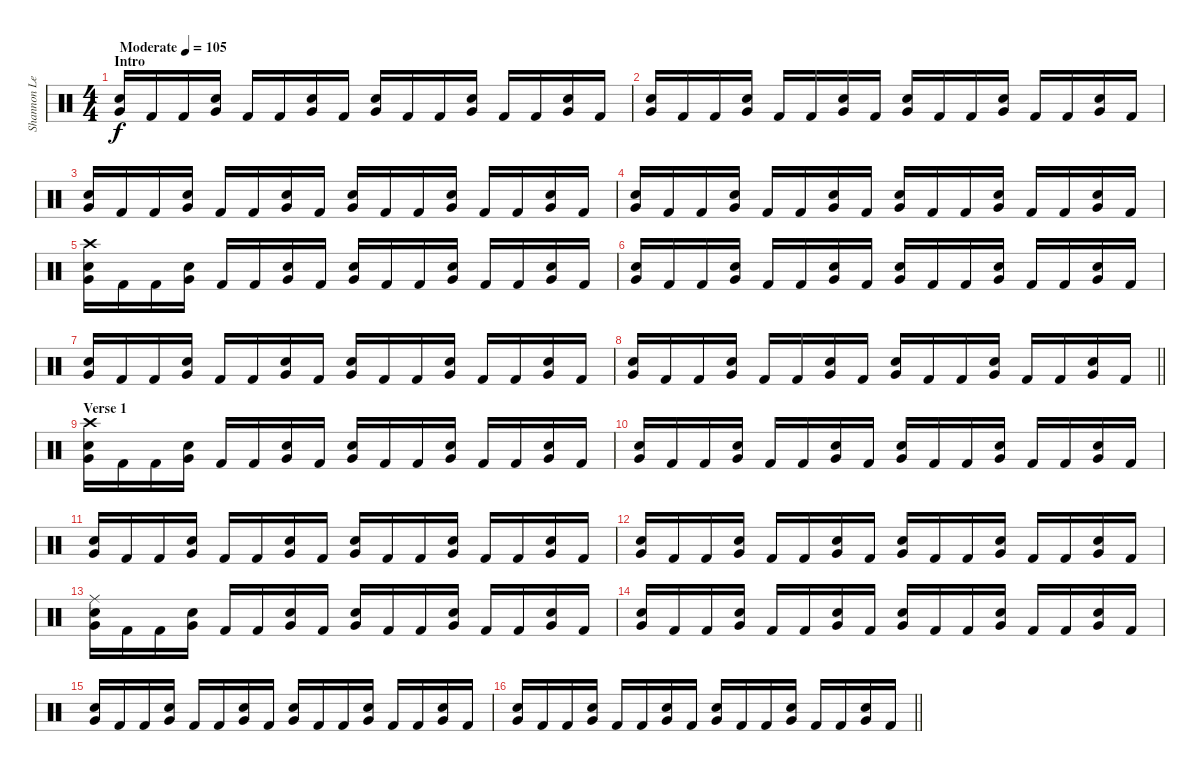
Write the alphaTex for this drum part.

\track ("Shannon Leto - Drums" "Shannon Le") {instrument percussion}
\staff {score}
\articulation defaults
\ts (4 4)
\section ("" "Intro")
\tempo (105 "Moderate")
\clef neutral
\ks c
("Electric Snare (hit)" "Very Low Tom (hit)").16{dy f} "Kick (hit) 2".16 "Kick (hit) 2".16 ("Electric Snare (hit)" "Very Low Tom (hit)").16 "Kick (hit) 2".16 "Kick (hit) 2".16 ("Electric Snare (hit)" "Very Low Tom (hit)").16 "Kick (hit) 2".16 ("Electric Snare (hit)" "Very Low Tom (hit)").16 "Kick (hit) 2".16 "Kick (hit) 2".16 ("Electric Snare (hit)" "Very Low Tom (hit)").16 "Kick (hit) 2".16 "Kick (hit) 2".16 ("Electric Snare (hit)" "Very Low Tom (hit)").16 "Kick (hit) 2".16 |
("Electric Snare (hit)" "Very Low Tom (hit)").16 "Kick (hit) 2".16 "Kick (hit) 2".16 ("Electric Snare (hit)" "Very Low Tom (hit)").16 "Kick (hit) 2".16 "Kick (hit) 2".16 ("Electric Snare (hit)" "Very Low Tom (hit)").16 "Kick (hit) 2".16 ("Electric Snare (hit)" "Very Low Tom (hit)").16 "Kick (hit) 2".16 "Kick (hit) 2".16 ("Electric Snare (hit)" "Very Low Tom (hit)").16 "Kick (hit) 2".16 "Kick (hit) 2".16 ("Electric Snare (hit)" "Very Low Tom (hit)").16 "Kick (hit) 2".16 |
("Electric Snare (hit)" "Very Low Tom (hit)").16 "Kick (hit) 2".16 "Kick (hit) 2".16 ("Electric Snare (hit)" "Very Low Tom (hit)").16 "Kick (hit) 2".16 "Kick (hit) 2".16 ("Electric Snare (hit)" "Very Low Tom (hit)").16 "Kick (hit) 2".16 ("Electric Snare (hit)" "Very Low Tom (hit)").16 "Kick (hit) 2".16 "Kick (hit) 2".16 ("Electric Snare (hit)" "Very Low Tom (hit)").16 "Kick (hit) 2".16 "Kick (hit) 2".16 ("Electric Snare (hit)" "Very Low Tom (hit)").16 "Kick (hit) 2".16 |
("Electric Snare (hit)" "Very Low Tom (hit)").16 "Kick (hit) 2".16 "Kick (hit) 2".16 ("Electric Snare (hit)" "Very Low Tom (hit)").16 "Kick (hit) 2".16 "Kick (hit) 2".16 ("Electric Snare (hit)" "Very Low Tom (hit)").16 "Kick (hit) 2".16 ("Electric Snare (hit)" "Very Low Tom (hit)").16 "Kick (hit) 2".16 "Kick (hit) 2".16 ("Electric Snare (hit)" "Very Low Tom (hit)").16 "Kick (hit) 2".16 "Kick (hit) 2".16 ("Electric Snare (hit)" "Very Low Tom (hit)").16 "Kick (hit) 2".16 |
("Crash high (hit)" "Electric Snare (hit)" "Very Low Tom (hit)").16 "Kick (hit) 2".16 "Kick (hit) 2".16 ("Electric Snare (hit)" "Very Low Tom (hit)").16 "Kick (hit) 2".16 "Kick (hit) 2".16 ("Electric Snare (hit)" "Very Low Tom (hit)").16 "Kick (hit) 2".16 ("Electric Snare (hit)" "Very Low Tom (hit)").16 "Kick (hit) 2".16 "Kick (hit) 2".16 ("Electric Snare (hit)" "Very Low Tom (hit)").16 "Kick (hit) 2".16 "Kick (hit) 2".16 ("Electric Snare (hit)" "Very Low Tom (hit)").16 "Kick (hit) 2".16 |
("Electric Snare (hit)" "Very Low Tom (hit)").16 "Kick (hit) 2".16 "Kick (hit) 2".16 ("Electric Snare (hit)" "Very Low Tom (hit)").16 "Kick (hit) 2".16 "Kick (hit) 2".16 ("Electric Snare (hit)" "Very Low Tom (hit)").16 "Kick (hit) 2".16 ("Electric Snare (hit)" "Very Low Tom (hit)").16 "Kick (hit) 2".16 "Kick (hit) 2".16 ("Electric Snare (hit)" "Very Low Tom (hit)").16 "Kick (hit) 2".16 "Kick (hit) 2".16 ("Electric Snare (hit)" "Very Low Tom (hit)").16 "Kick (hit) 2".16 |
("Electric Snare (hit)" "Very Low Tom (hit)").16 "Kick (hit) 2".16 "Kick (hit) 2".16 ("Electric Snare (hit)" "Very Low Tom (hit)").16 "Kick (hit) 2".16 "Kick (hit) 2".16 ("Electric Snare (hit)" "Very Low Tom (hit)").16 "Kick (hit) 2".16 ("Electric Snare (hit)" "Very Low Tom (hit)").16 "Kick (hit) 2".16 "Kick (hit) 2".16 ("Electric Snare (hit)" "Very Low Tom (hit)").16 "Kick (hit) 2".16 "Kick (hit) 2".16 ("Electric Snare (hit)" "Very Low Tom (hit)").16 "Kick (hit) 2".16 |
\barLineRight lightlight
("Electric Snare (hit)" "Very Low Tom (hit)").16 "Kick (hit) 2".16 "Kick (hit) 2".16 ("Electric Snare (hit)" "Very Low Tom (hit)").16 "Kick (hit) 2".16 "Kick (hit) 2".16 ("Electric Snare (hit)" "Very Low Tom (hit)").16 "Kick (hit) 2".16 ("Electric Snare (hit)" "Very Low Tom (hit)").16 "Kick (hit) 2".16 "Kick (hit) 2".16 ("Electric Snare (hit)" "Very Low Tom (hit)").16 "Kick (hit) 2".16 "Kick (hit) 2".16 ("Electric Snare (hit)" "Very Low Tom (hit)").16 "Kick (hit) 2".16 |
\section ("" "Verse 1")
("Crash high (hit)" "Electric Snare (hit)" "Very Low Tom (hit)").16 "Kick (hit) 2".16 "Kick (hit) 2".16 ("Electric Snare (hit)" "Very Low Tom (hit)").16 "Kick (hit) 2".16 "Kick (hit) 2".16 ("Electric Snare (hit)" "Very Low Tom (hit)").16 "Kick (hit) 2".16 ("Electric Snare (hit)" "Very Low Tom (hit)").16 "Kick (hit) 2".16 "Kick (hit) 2".16 ("Electric Snare (hit)" "Very Low Tom (hit)").16 "Kick (hit) 2".16 "Kick (hit) 2".16 ("Electric Snare (hit)" "Very Low Tom (hit)").16 "Kick (hit) 2".16 |
("Electric Snare (hit)" "Very Low Tom (hit)").16 "Kick (hit) 2".16 "Kick (hit) 2".16 ("Electric Snare (hit)" "Very Low Tom (hit)").16 "Kick (hit) 2".16 "Kick (hit) 2".16 ("Electric Snare (hit)" "Very Low Tom (hit)").16 "Kick (hit) 2".16 ("Electric Snare (hit)" "Very Low Tom (hit)").16 "Kick (hit) 2".16 "Kick (hit) 2".16 ("Electric Snare (hit)" "Very Low Tom (hit)").16 "Kick (hit) 2".16 "Kick (hit) 2".16 ("Electric Snare (hit)" "Very Low Tom (hit)").16 "Kick (hit) 2".16 |
("Electric Snare (hit)" "Very Low Tom (hit)").16 "Kick (hit) 2".16 "Kick (hit) 2".16 ("Electric Snare (hit)" "Very Low Tom (hit)").16 "Kick (hit) 2".16 "Kick (hit) 2".16 ("Electric Snare (hit)" "Very Low Tom (hit)").16 "Kick (hit) 2".16 ("Electric Snare (hit)" "Very Low Tom (hit)").16 "Kick (hit) 2".16 "Kick (hit) 2".16 ("Electric Snare (hit)" "Very Low Tom (hit)").16 "Kick (hit) 2".16 "Kick (hit) 2".16 ("Electric Snare (hit)" "Very Low Tom (hit)").16 "Kick (hit) 2".16 |
("Electric Snare (hit)" "Very Low Tom (hit)").16 "Kick (hit) 2".16 "Kick (hit) 2".16 ("Electric Snare (hit)" "Very Low Tom (hit)").16 "Kick (hit) 2".16 "Kick (hit) 2".16 ("Electric Snare (hit)" "Very Low Tom (hit)").16 "Kick (hit) 2".16 ("Electric Snare (hit)" "Very Low Tom (hit)").16 "Kick (hit) 2".16 "Kick (hit) 2".16 ("Electric Snare (hit)" "Very Low Tom (hit)").16 "Kick (hit) 2".16 "Kick (hit) 2".16 ("Electric Snare (hit)" "Very Low Tom (hit)").16 "Kick (hit) 2".16 |
("Ride (middle)" "Electric Snare (hit)" "Very Low Tom (hit)").16 "Kick (hit) 2".16 "Kick (hit) 2".16 ("Electric Snare (hit)" "Very Low Tom (hit)").16 "Kick (hit) 2".16 "Kick (hit) 2".16 ("Electric Snare (hit)" "Very Low Tom (hit)").16 "Kick (hit) 2".16 ("Electric Snare (hit)" "Very Low Tom (hit)").16 "Kick (hit) 2".16 "Kick (hit) 2".16 ("Electric Snare (hit)" "Very Low Tom (hit)").16 "Kick (hit) 2".16 "Kick (hit) 2".16 ("Electric Snare (hit)" "Very Low Tom (hit)").16 "Kick (hit) 2".16 |
("Electric Snare (hit)" "Very Low Tom (hit)").16 "Kick (hit) 2".16 "Kick (hit) 2".16 ("Electric Snare (hit)" "Very Low Tom (hit)").16 "Kick (hit) 2".16 "Kick (hit) 2".16 ("Electric Snare (hit)" "Very Low Tom (hit)").16 "Kick (hit) 2".16 ("Electric Snare (hit)" "Very Low Tom (hit)").16 "Kick (hit) 2".16 "Kick (hit) 2".16 ("Electric Snare (hit)" "Very Low Tom (hit)").16 "Kick (hit) 2".16 "Kick (hit) 2".16 ("Electric Snare (hit)" "Very Low Tom (hit)").16 "Kick (hit) 2".16 |
("Electric Snare (hit)" "Very Low Tom (hit)").16 "Kick (hit) 2".16 "Kick (hit) 2".16 ("Electric Snare (hit)" "Very Low Tom (hit)").16 "Kick (hit) 2".16 "Kick (hit) 2".16 ("Electric Snare (hit)" "Very Low Tom (hit)").16 "Kick (hit) 2".16 ("Electric Snare (hit)" "Very Low Tom (hit)").16 "Kick (hit) 2".16 "Kick (hit) 2".16 ("Electric Snare (hit)" "Very Low Tom (hit)").16 "Kick (hit) 2".16 "Kick (hit) 2".16 ("Electric Snare (hit)" "Very Low Tom (hit)").16 "Kick (hit) 2".16 |
\barLineRight lightlight
("Electric Snare (hit)" "Very Low Tom (hit)").16 "Kick (hit) 2".16 "Kick (hit) 2".16 ("Electric Snare (hit)" "Very Low Tom (hit)").16 "Kick (hit) 2".16 "Kick (hit) 2".16 ("Electric Snare (hit)" "Very Low Tom (hit)").16 "Kick (hit) 2".16 ("Electric Snare (hit)" "Very Low Tom (hit)").16 "Kick (hit) 2".16 "Kick (hit) 2".16 ("Electric Snare (hit)" "Very Low Tom (hit)").16 "Kick (hit) 2".16 "Kick (hit) 2".16 ("Electric Snare (hit)" "Very Low Tom (hit)").16 "Kick (hit) 2".16
